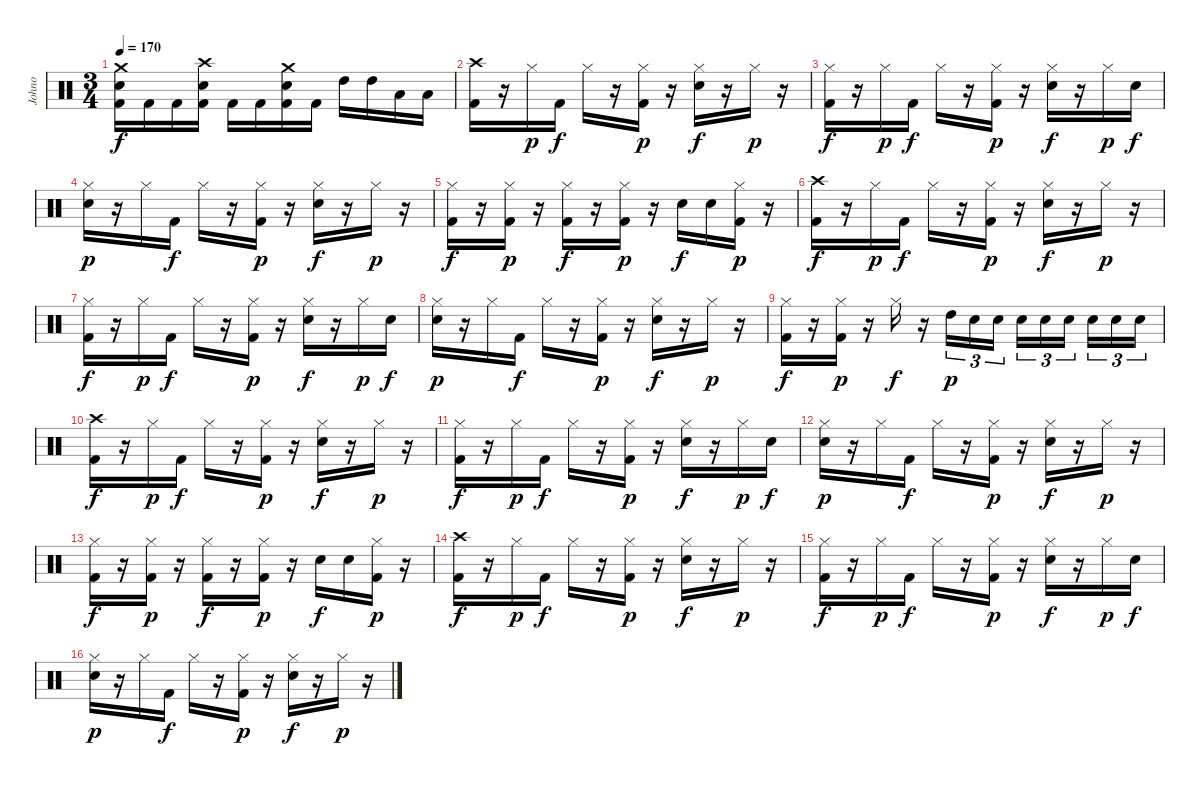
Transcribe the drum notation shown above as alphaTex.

\track ("Johno" "Johno") {instrument percussion}
\staff {score}
\articulation defaults
\ts (3 4)
\tempo 170
\clef neutral
\ks c
("Crash medium (hit)" "Electric Snare (hit)" "Kick (hit) 2").16{dy f} "Kick (hit) 2".16 "Kick (hit) 2".16 ("Crash high (hit)" "Electric Snare (hit)" "Kick (hit) 2").16 "Kick (hit) 2".16 "Kick (hit) 2".16 ("Crash medium (hit)" "Electric Snare (hit)" "Kick (hit) 2").16 "Kick (hit) 2".16 "High Tom (hit)".16 "High Tom (hit)".16 "Low Floor Tom (hit)".16 "Low Floor Tom (hit)".16 |
("Crash high (hit)" "Kick (hit) 2").16 r.16 "Hi-Hat (closed)".16{dy p} "Kick (hit) 2".16{dy f} "Hi-Hat (closed)".16 r.16 ("Hi-Hat (closed)" "Kick (hit) 2").16{dy p} r.16 ("Hi-Hat (closed)" "Electric Snare (hit)").16{dy f} r.16 "Hi-Hat (closed)".16{dy p} r.16 |
("Hi-Hat (closed)" "Kick (hit) 2").16{dy f} r.16 "Hi-Hat (closed)".16{dy p} "Kick (hit) 2".16{dy f} "Hi-Hat (closed)".16 r.16 ("Hi-Hat (closed)" "Kick (hit) 2").16{dy p} r.16 ("Hi-Hat (closed)" "Electric Snare (hit)").16{dy f} r.16 "Hi-Hat (closed)".16{dy p} "Electric Snare (hit)".16{dy f} |
("Hi-Hat (closed)" "Electric Snare (hit)").16{dy p} r.16 "Hi-Hat (closed)".16 "Kick (hit) 2".16{dy f} "Hi-Hat (closed)".16 r.16 ("Hi-Hat (closed)" "Kick (hit) 2").16{dy p} r.16 ("Hi-Hat (closed)" "Electric Snare (hit)").16{dy f} r.16 "Hi-Hat (closed)".16{dy p} r.16 |
("Hi-Hat (closed)" "Kick (hit) 2").16{dy f} r.16 ("Hi-Hat (closed)" "Kick (hit) 2").16{dy p} r.16 ("Hi-Hat (closed)" "Kick (hit) 2").16{dy f} r.16 ("Hi-Hat (closed)" "Kick (hit) 2").16{dy p} r.16 "Electric Snare (hit)".16{dy f} "Electric Snare (hit)".16 ("Hi-Hat (closed)" "Kick (hit) 2").16{dy p} r.16 |
("Crash high (hit)" "Kick (hit) 2").16{dy f} r.16 "Hi-Hat (closed)".16{dy p} "Kick (hit) 2".16{dy f} "Hi-Hat (closed)".16 r.16 ("Hi-Hat (closed)" "Kick (hit) 2").16{dy p} r.16 ("Hi-Hat (closed)" "Electric Snare (hit)").16{dy f} r.16 "Hi-Hat (closed)".16{dy p} r.16 |
("Hi-Hat (closed)" "Kick (hit) 2").16{dy f} r.16 "Hi-Hat (closed)".16{dy p} "Kick (hit) 2".16{dy f} "Hi-Hat (closed)".16 r.16 ("Hi-Hat (closed)" "Kick (hit) 2").16{dy p} r.16 ("Hi-Hat (closed)" "Electric Snare (hit)").16{dy f} r.16 "Hi-Hat (closed)".16{dy p} "Electric Snare (hit)".16{dy f} |
("Hi-Hat (closed)" "Electric Snare (hit)").16{dy p} r.16 "Hi-Hat (closed)".16 "Kick (hit) 2".16{dy f} "Hi-Hat (closed)".16 r.16 ("Hi-Hat (closed)" "Kick (hit) 2").16{dy p} r.16 ("Hi-Hat (closed)" "Electric Snare (hit)").16{dy f} r.16 "Hi-Hat (closed)".16{dy p} r.16 |
("Hi-Hat (closed)" "Kick (hit) 2").16{dy f} r.16 ("Hi-Hat (closed)" "Kick (hit) 2").16{dy p} r.16 "Hi-Hat (closed)".16{dy f} r.16 "High Tom (hit)".16{tu (3 2) dy p} "Electric Snare (hit)".16{tu (3 2)} "Electric Snare (hit)".16{tu (3 2)} "Electric Snare (hit)".16{tu (3 2)} "Electric Snare (hit)".16{tu (3 2)} "Electric Snare (hit)".16{tu (3 2) beam splitsecondary} "Electric Snare (hit)".16{tu (3 2)} "Electric Snare (hit)".16{tu (3 2)} "Electric Snare (hit)".16{tu (3 2)} |
("Crash high (hit)" "Kick (hit) 2").16{dy f} r.16 "Hi-Hat (closed)".16{dy p} "Kick (hit) 2".16{dy f} "Hi-Hat (closed)".16 r.16 ("Hi-Hat (closed)" "Kick (hit) 2").16{dy p} r.16 ("Hi-Hat (closed)" "Electric Snare (hit)").16{dy f} r.16 "Hi-Hat (closed)".16{dy p} r.16 |
("Hi-Hat (closed)" "Kick (hit) 2").16{dy f} r.16 "Hi-Hat (closed)".16{dy p} "Kick (hit) 2".16{dy f} "Hi-Hat (closed)".16 r.16 ("Hi-Hat (closed)" "Kick (hit) 2").16{dy p} r.16 ("Hi-Hat (closed)" "Electric Snare (hit)").16{dy f} r.16 "Hi-Hat (closed)".16{dy p} "Electric Snare (hit)".16{dy f} |
("Hi-Hat (closed)" "Electric Snare (hit)").16{dy p} r.16 "Hi-Hat (closed)".16 "Kick (hit) 2".16{dy f} "Hi-Hat (closed)".16 r.16 ("Hi-Hat (closed)" "Kick (hit) 2").16{dy p} r.16 ("Hi-Hat (closed)" "Electric Snare (hit)").16{dy f} r.16 "Hi-Hat (closed)".16{dy p} r.16 |
("Hi-Hat (closed)" "Kick (hit) 2").16{dy f} r.16 ("Hi-Hat (closed)" "Kick (hit) 2").16{dy p} r.16 ("Hi-Hat (closed)" "Kick (hit) 2").16{dy f} r.16 ("Hi-Hat (closed)" "Kick (hit) 2").16{dy p} r.16 "Electric Snare (hit)".16{dy f} "Electric Snare (hit)".16 ("Hi-Hat (closed)" "Kick (hit) 2").16{dy p} r.16 |
("Crash high (hit)" "Kick (hit) 2").16{dy f} r.16 "Hi-Hat (closed)".16{dy p} "Kick (hit) 2".16{dy f} "Hi-Hat (closed)".16 r.16 ("Hi-Hat (closed)" "Kick (hit) 2").16{dy p} r.16 ("Hi-Hat (closed)" "Electric Snare (hit)").16{dy f} r.16 "Hi-Hat (closed)".16{dy p} r.16 |
("Hi-Hat (closed)" "Kick (hit) 2").16{dy f} r.16 "Hi-Hat (closed)".16{dy p} "Kick (hit) 2".16{dy f} "Hi-Hat (closed)".16 r.16 ("Hi-Hat (closed)" "Kick (hit) 2").16{dy p} r.16 ("Hi-Hat (closed)" "Electric Snare (hit)").16{dy f} r.16 "Hi-Hat (closed)".16{dy p} "Electric Snare (hit)".16{dy f} |
("Hi-Hat (closed)" "Electric Snare (hit)").16{dy p} r.16 "Hi-Hat (closed)".16 "Kick (hit) 2".16{dy f} "Hi-Hat (closed)".16 r.16 ("Hi-Hat (closed)" "Kick (hit) 2").16{dy p} r.16 ("Hi-Hat (closed)" "Electric Snare (hit)").16{dy f} r.16 "Hi-Hat (closed)".16{dy p} r.16
